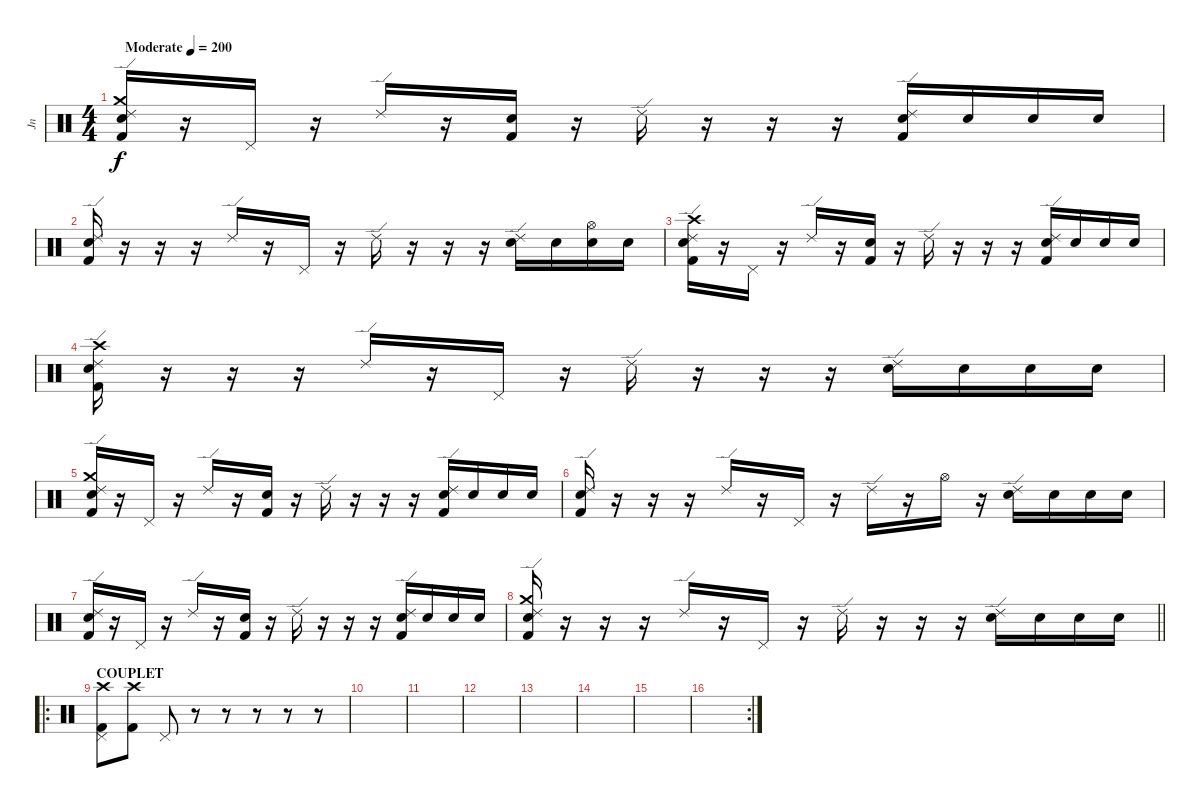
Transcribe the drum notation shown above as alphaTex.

\track ("Jn" "Jn") {instrument percussion}
\staff {score}
\articulation defaults
\ts (4 4)
\tempo (200 "Moderate")
\clef neutral
\ks c
("Ride (edge) 2" "Crash medium (hit)" "Electric Snare (hit)" "Kick (hit) 2").16{dy f} r.16 "Pedal Hi-Hat (hit)".16 r.16 "Ride (edge) 2".16 r.16 ("Electric Snare (hit)" "Kick (hit) 2").16 r.16 "Ride (edge) 2".16 r.16 r.16 r.16 ("Ride (edge) 2" "Electric Snare (hit)" "Kick (hit) 2").16 "Electric Snare (hit)".16 "Electric Snare (hit)".16 "Electric Snare (hit)".16 |
("Ride (edge) 2" "Electric Snare (hit)" "Kick (hit) 2").16 r.16 r.16 r.16 "Ride (edge) 2".16 r.16 "Pedal Hi-Hat (hit)".16 r.16 "Ride (edge) 2".16 r.16 r.16 r.16 ("Ride (edge) 2" "Electric Snare (hit)").16 "Electric Snare (hit)".16 ("Hi-Hat (open)" "Electric Snare (hit)").16 "Electric Snare (hit)".16 |
("Ride (edge) 2" "Crash high (hit)" "Electric Snare (hit)" "Kick (hit) 2").16 r.16 "Pedal Hi-Hat (hit)".16 r.16 "Ride (edge) 2".16 r.16 ("Electric Snare (hit)" "Kick (hit) 2").16 r.16 "Ride (edge) 2".16 r.16 r.16 r.16 ("Ride (edge) 2" "Electric Snare (hit)" "Kick (hit) 2").16 "Electric Snare (hit)".16 "Electric Snare (hit)".16 "Electric Snare (hit)".16 |
("Ride (edge) 2" "Crash high (hit)" "Electric Snare (hit)" "Kick (hit) 2").16 r.16 r.16 r.16 "Ride (edge) 2".16 r.16 "Pedal Hi-Hat (hit)".16 r.16 "Ride (edge) 2".16 r.16 r.16 r.16 ("Ride (edge) 2" "Electric Snare (hit)").16 "Electric Snare (hit)".16 "Electric Snare (hit)".16 "Electric Snare (hit)".16 |
("Ride (edge) 2" "Crash medium (hit)" "Electric Snare (hit)" "Kick (hit) 2").16 r.16 "Pedal Hi-Hat (hit)".16 r.16 "Ride (edge) 2".16 r.16 ("Electric Snare (hit)" "Kick (hit) 2").16 r.16 "Ride (edge) 2".16 r.16 r.16 r.16 ("Ride (edge) 2" "Electric Snare (hit)" "Kick (hit) 2").16 "Electric Snare (hit)".16 "Electric Snare (hit)".16 "Electric Snare (hit)".16 |
("Ride (edge) 2" "Electric Snare (hit)" "Kick (hit) 2").16 r.16 r.16 r.16 "Ride (edge) 2".16 r.16 "Pedal Hi-Hat (hit)".16 r.16 "Ride (edge) 2".16 r.16 "Hi-Hat (open)".16 r.16 ("Ride (edge) 2" "Electric Snare (hit)").16 "Electric Snare (hit)".16 "Electric Snare (hit)".16 "Electric Snare (hit)".16 |
("Ride (edge) 2" "Electric Snare (hit)" "Kick (hit) 2").16 r.16 "Pedal Hi-Hat (hit)".16 r.16 "Ride (edge) 2".16 r.16 ("Electric Snare (hit)" "Kick (hit) 2").16 r.16 "Ride (edge) 2".16 r.16 r.16 r.16 ("Ride (edge) 2" "Electric Snare (hit)" "Kick (hit) 2").16 "Electric Snare (hit)".16 "Electric Snare (hit)".16 "Electric Snare (hit)".16 |
\barLineRight lightlight
("Ride (edge) 2" "Crash medium (hit)" "Electric Snare (hit)" "Kick (hit) 2").16 r.16 r.16 r.16 "Ride (edge) 2".16 r.16 "Pedal Hi-Hat (hit)".16 r.16 "Ride (edge) 2".16 r.16 r.16 r.16 ("Ride (edge) 2" "Electric Snare (hit)").16 "Electric Snare (hit)".16 "Electric Snare (hit)".16 "Electric Snare (hit)".16 |
\ro
\section ("" "COUPLET")
("Crash high (hit)" "Pedal Hi-Hat (hit)" "Kick (hit) 2").8 ("Crash high (hit)" "Kick (hit) 2").8 "Pedal Hi-Hat (hit)".8 r.8 r.8 r.8 r.8 r.8 |
|
|
|
|
|
|
\rc 2
